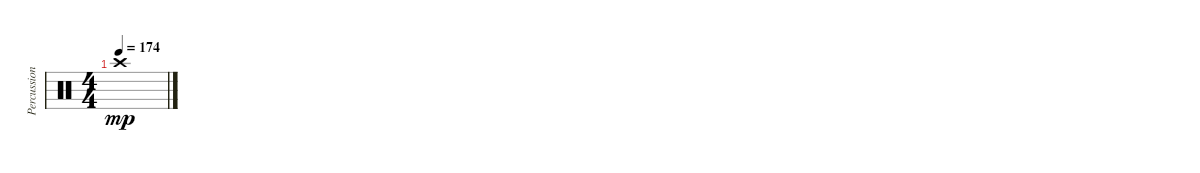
\track ("Percussion" "Percussion") {instrument percussion}
\staff {score}
\articulation defaults
\ts (4 4)
\tempo 174
\clef neutral
\ks c "Crash high (hit)".1{dy mp}
